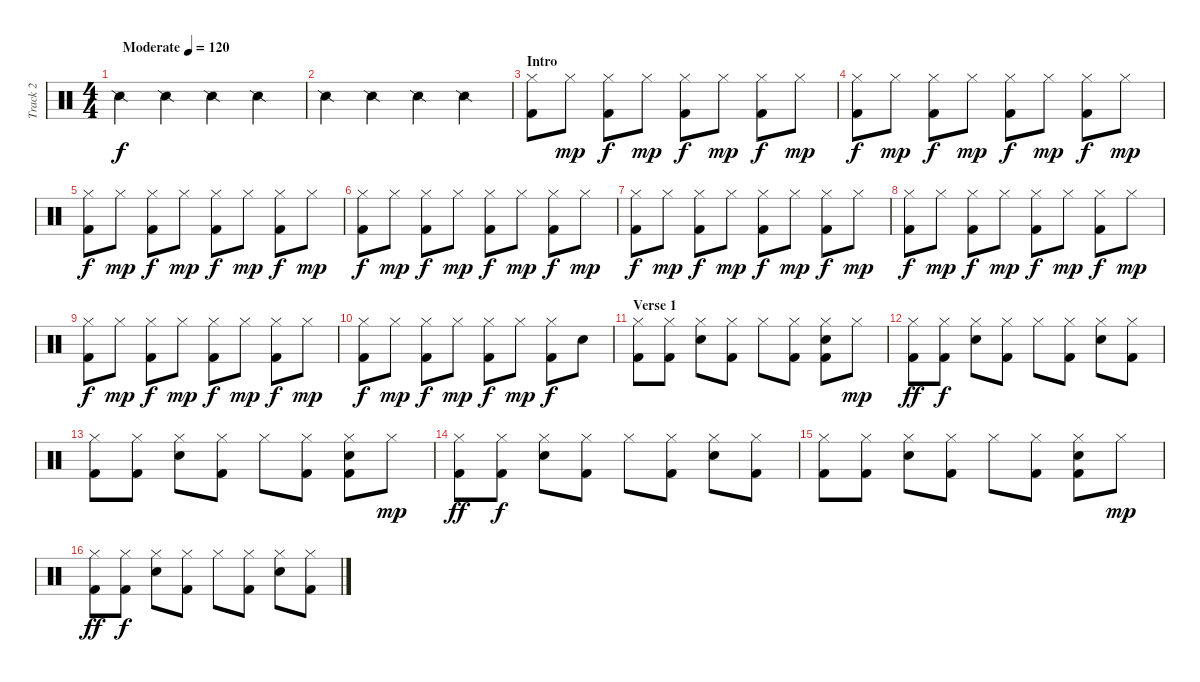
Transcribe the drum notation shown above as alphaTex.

\track ("Track 2" "Track 2") {instrument percussion}
\staff {score}
\articulation defaults
\ts (4 4)
\tempo (120 "Moderate")
\clef neutral
\ks c "Snare (side stick) 2".4{dy f} "Snare (side stick) 2".4 "Snare (side stick) 2".4 "Snare (side stick) 2".4
|
"Snare (side stick) 2".4 "Snare (side stick) 2".4 "Snare (side stick) 2".4 "Snare (side stick) 2".4 |
\section ("" "Intro")
("Hi-Hat (closed)" "Kick (hit) 2").8 "Hi-Hat (closed)".8{dy mp} ("Hi-Hat (closed)" "Kick (hit) 2").8{dy f} "Hi-Hat (closed)".8{dy mp} ("Hi-Hat (closed)" "Kick (hit) 2").8{dy f} "Hi-Hat (closed)".8{dy mp} ("Hi-Hat (closed)" "Kick (hit) 2").8{dy f} "Hi-Hat (closed)".8{dy mp} |
("Hi-Hat (closed)" "Kick (hit) 2").8{dy f} "Hi-Hat (closed)".8{dy mp} ("Hi-Hat (closed)" "Kick (hit) 2").8{dy f} "Hi-Hat (closed)".8{dy mp} ("Hi-Hat (closed)" "Kick (hit) 2").8{dy f} "Hi-Hat (closed)".8{dy mp} ("Hi-Hat (closed)" "Kick (hit) 2").8{dy f} "Hi-Hat (closed)".8{dy mp} |
("Hi-Hat (closed)" "Kick (hit) 2").8{dy f} "Hi-Hat (closed)".8{dy mp} ("Hi-Hat (closed)" "Kick (hit) 2").8{dy f} "Hi-Hat (closed)".8{dy mp} ("Hi-Hat (closed)" "Kick (hit) 2").8{dy f} "Hi-Hat (closed)".8{dy mp} ("Hi-Hat (closed)" "Kick (hit) 2").8{dy f} "Hi-Hat (closed)".8{dy mp} |
("Hi-Hat (closed)" "Kick (hit) 2").8{dy f} "Hi-Hat (closed)".8{dy mp} ("Hi-Hat (closed)" "Kick (hit) 2").8{dy f} "Hi-Hat (closed)".8{dy mp} ("Hi-Hat (closed)" "Kick (hit) 2").8{dy f} "Hi-Hat (closed)".8{dy mp} ("Hi-Hat (closed)" "Kick (hit) 2").8{dy f} "Hi-Hat (closed)".8{dy mp} |
("Hi-Hat (closed)" "Kick (hit) 2").8{dy f} "Hi-Hat (closed)".8{dy mp} ("Hi-Hat (closed)" "Kick (hit) 2").8{dy f} "Hi-Hat (closed)".8{dy mp} ("Hi-Hat (closed)" "Kick (hit) 2").8{dy f} "Hi-Hat (closed)".8{dy mp} ("Hi-Hat (closed)" "Kick (hit) 2").8{dy f} "Hi-Hat (closed)".8{dy mp} |
("Hi-Hat (closed)" "Kick (hit) 2").8{dy f} "Hi-Hat (closed)".8{dy mp} ("Hi-Hat (closed)" "Kick (hit) 2").8{dy f} "Hi-Hat (closed)".8{dy mp} ("Hi-Hat (closed)" "Kick (hit) 2").8{dy f} "Hi-Hat (closed)".8{dy mp} ("Hi-Hat (closed)" "Kick (hit) 2").8{dy f} "Hi-Hat (closed)".8{dy mp} |
("Hi-Hat (closed)" "Kick (hit) 2").8{dy f} "Hi-Hat (closed)".8{dy mp} ("Hi-Hat (closed)" "Kick (hit) 2").8{dy f} "Hi-Hat (closed)".8{dy mp} ("Hi-Hat (closed)" "Kick (hit) 2").8{dy f} "Hi-Hat (closed)".8{dy mp} ("Hi-Hat (closed)" "Kick (hit) 2").8{dy f} "Hi-Hat (closed)".8{dy mp} |
("Hi-Hat (closed)" "Kick (hit) 2").8{dy f} "Hi-Hat (closed)".8{dy mp} ("Hi-Hat (closed)" "Kick (hit) 2").8{dy f} "Hi-Hat (closed)".8{dy mp} ("Hi-Hat (closed)" "Kick (hit) 2").8{dy f} "Hi-Hat (closed)".8{dy mp} ("Hi-Hat (closed)" "Kick (hit) 2").8{dy f} "Electric Snare (hit)".8 |
\section ("" "Verse 1")
("Hi-Hat (closed)" "Kick (hit) 2").8 ("Hi-Hat (closed)" "Kick (hit) 2").8 ("Hi-Hat (closed)" "Electric Snare (hit)").8 ("Hi-Hat (closed)" "Kick (hit) 2").8 "Hi-Hat (closed)".8 ("Hi-Hat (closed)" "Kick (hit) 2").8 ("Hi-Hat (closed)" "Electric Snare (hit)" "Kick (hit) 2").8 "Hi-Hat (closed)".8{dy mp} |
("Hi-Hat (closed)" "Kick (hit) 2").8{dy ff} ("Hi-Hat (closed)" "Kick (hit) 2").8{dy f} ("Hi-Hat (closed)" "Electric Snare (hit)").8 ("Hi-Hat (closed)" "Kick (hit) 2").8 "Hi-Hat (closed)".8 ("Hi-Hat (closed)" "Kick (hit) 2").8 ("Hi-Hat (closed)" "Electric Snare (hit)").8 ("Hi-Hat (closed)" "Kick (hit) 2").8 |
("Hi-Hat (closed)" "Kick (hit) 2").8 ("Hi-Hat (closed)" "Kick (hit) 2").8 ("Hi-Hat (closed)" "Electric Snare (hit)").8 ("Hi-Hat (closed)" "Kick (hit) 2").8 "Hi-Hat (closed)".8 ("Hi-Hat (closed)" "Kick (hit) 2").8 ("Hi-Hat (closed)" "Electric Snare (hit)" "Kick (hit) 2").8 "Hi-Hat (closed)".8{dy mp} |
("Hi-Hat (closed)" "Kick (hit) 2").8{dy ff} ("Hi-Hat (closed)" "Kick (hit) 2").8{dy f} ("Hi-Hat (closed)" "Electric Snare (hit)").8 ("Hi-Hat (closed)" "Kick (hit) 2").8 "Hi-Hat (closed)".8 ("Hi-Hat (closed)" "Kick (hit) 2").8 ("Hi-Hat (closed)" "Electric Snare (hit)").8 ("Hi-Hat (closed)" "Kick (hit) 2").8 |
("Hi-Hat (closed)" "Kick (hit) 2").8 ("Hi-Hat (closed)" "Kick (hit) 2").8 ("Hi-Hat (closed)" "Electric Snare (hit)").8 ("Hi-Hat (closed)" "Kick (hit) 2").8 "Hi-Hat (closed)".8 ("Hi-Hat (closed)" "Kick (hit) 2").8 ("Hi-Hat (closed)" "Electric Snare (hit)" "Kick (hit) 2").8 "Hi-Hat (closed)".8{dy mp} |
("Hi-Hat (closed)" "Kick (hit) 2").8{dy ff} ("Hi-Hat (closed)" "Kick (hit) 2").8{dy f} ("Hi-Hat (closed)" "Electric Snare (hit)").8 ("Hi-Hat (closed)" "Kick (hit) 2").8 "Hi-Hat (closed)".8 ("Hi-Hat (closed)" "Kick (hit) 2").8 ("Hi-Hat (closed)" "Electric Snare (hit)").8 ("Hi-Hat (closed)" "Kick (hit) 2").8
